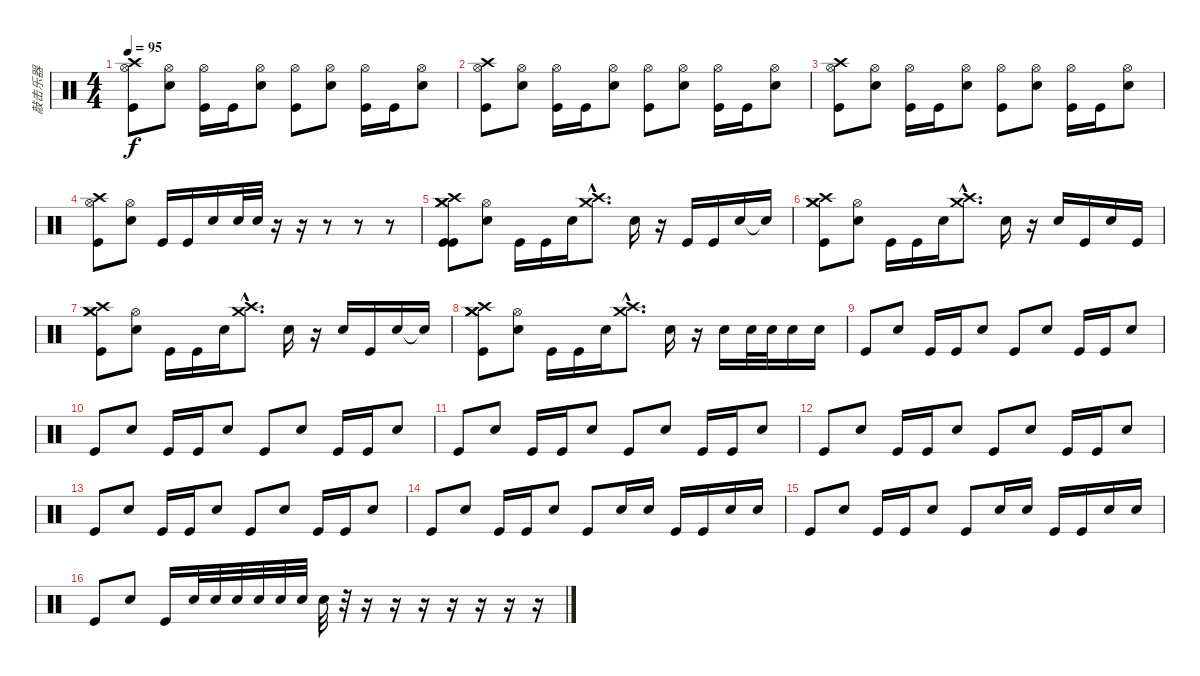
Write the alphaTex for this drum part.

\track ("敲击乐器" "敲击乐器") {instrument percussion}
\staff {score}
\articulation defaults
\ts (4 4)
\tempo 95
\clef neutral
\ks c
("Crash high (hit)" "Hi-Hat (open)" "Kick (hit)").8{dy f} ("Hi-Hat (open)" "Electric Snare (hit)").8 ("Hi-Hat (open)" "Kick (hit)").16 "Kick (hit)".16 ("Hi-Hat (open)" "Electric Snare (hit)").8 ("Hi-Hat (open)" "Kick (hit)").8 ("Hi-Hat (open)" "Electric Snare (hit)").8 ("Hi-Hat (open)" "Kick (hit)").16 "Kick (hit)".16 ("Hi-Hat (open)" "Electric Snare (hit)").8 |
("Crash high (hit)" "Hi-Hat (open)" "Kick (hit)").8 ("Hi-Hat (open)" "Electric Snare (hit)").8 ("Hi-Hat (open)" "Kick (hit)").16 "Kick (hit)".16 ("Hi-Hat (open)" "Electric Snare (hit)").8 ("Hi-Hat (open)" "Kick (hit)").8 ("Hi-Hat (open)" "Electric Snare (hit)").8 ("Hi-Hat (open)" "Kick (hit)").16 "Kick (hit)".16 ("Hi-Hat (open)" "Electric Snare (hit)").8 |
("Crash high (hit)" "Hi-Hat (open)" "Kick (hit)").8 ("Hi-Hat (open)" "Electric Snare (hit)").8 ("Hi-Hat (open)" "Kick (hit)").16 "Kick (hit)".16 ("Hi-Hat (open)" "Electric Snare (hit)").8 ("Hi-Hat (open)" "Kick (hit)").8 ("Hi-Hat (open)" "Electric Snare (hit)").8 ("Hi-Hat (open)" "Kick (hit)").16 "Kick (hit)".16 ("Hi-Hat (open)" "Electric Snare (hit)").8 |
("Crash high (hit)" "Hi-Hat (open)" "Kick (hit)").8 ("Hi-Hat (open)" "Electric Snare (hit)").8 "Kick (hit)".16 "Kick (hit)".16 "Electric Snare (hit)".16 "Electric Snare (hit)".32 "Electric Snare (hit)".32 r.16 r.16 r.8 r.8 r.8 |
("Crash medium (hit)" "Crash medium (hit)" "Crash high (hit)" "Kick (hit)" "Kick (hit)").8 ("Hi-Hat (open)" "Electric Snare (hit)").8 "Kick (hit)".16 "Kick (hit)".16 "Electric Snare (hit)".16 ("Crash medium (hit)"{hac} "Crash high (hit)"{hac}).8{d} "Electric Snare (hit)".16 r.16 "Kick (hit)".16 "Kick (hit)".16 "Electric Snare (hit)".16 "Snare (hit)"{t}.16 |
("Crash medium (hit)" "Crash medium (hit)" "Crash high (hit)" "Kick (hit)").8 ("Hi-Hat (open)" "Electric Snare (hit)").8 "Kick (hit)".16 "Kick (hit)".16 "Electric Snare (hit)".16 ("Crash medium (hit)"{hac} "Crash high (hit)"{hac}).8{d} "Electric Snare (hit)".16 r.16 "Electric Snare (hit)".16 "Kick (hit)".16 "Electric Snare (hit)".16 "Kick (hit)".16 |
("Crash medium (hit)" "Crash medium (hit)" "Crash high (hit)" "Kick (hit)").8 ("Hi-Hat (open)" "Electric Snare (hit)").8 "Kick (hit)".16 "Kick (hit)".16 "Electric Snare (hit)".16 ("Crash medium (hit)"{hac} "Crash high (hit)"{hac}).8{d} "Electric Snare (hit)".16 r.16 "Electric Snare (hit)".16 "Kick (hit)".16 "Electric Snare (hit)".16 "Snare (hit)"{t}.16 |
("Crash medium (hit)" "Crash medium (hit)" "Crash high (hit)" "Kick (hit)").8 ("Hi-Hat (open)" "Electric Snare (hit)").8 "Kick (hit)".16 "Kick (hit)".16 "Electric Snare (hit)".16 ("Crash medium (hit)"{hac} "Crash high (hit)"{hac}).8{d} "Electric Snare (hit)".16 r.16 "Electric Snare (hit)".16 "Electric Snare (hit)".32 "Electric Snare (hit)".32 "Electric Snare (hit)".16 "Electric Snare (hit)".16 |
"Kick (hit)".8 "Electric Snare (hit)".8 "Kick (hit)".16 "Kick (hit)".16 "Electric Snare (hit)".8 "Kick (hit)".8 "Electric Snare (hit)".8 "Kick (hit)".16 "Kick (hit)".16 "Electric Snare (hit)".8 |
"Kick (hit)".8 "Electric Snare (hit)".8 "Kick (hit)".16 "Kick (hit)".16 "Electric Snare (hit)".8 "Kick (hit)".8 "Electric Snare (hit)".8 "Kick (hit)".16 "Kick (hit)".16 "Electric Snare (hit)".8 |
"Kick (hit)".8 "Electric Snare (hit)".8 "Kick (hit)".16 "Kick (hit)".16 "Electric Snare (hit)".8 "Kick (hit)".8 "Electric Snare (hit)".8 "Kick (hit)".16 "Kick (hit)".16 "Electric Snare (hit)".8 |
"Kick (hit)".8 "Electric Snare (hit)".8 "Kick (hit)".16 "Kick (hit)".16 "Electric Snare (hit)".8 "Kick (hit)".8 "Electric Snare (hit)".8 "Kick (hit)".16 "Kick (hit)".16 "Electric Snare (hit)".8 |
"Kick (hit)".8 "Electric Snare (hit)".8 "Kick (hit)".16 "Kick (hit)".16 "Electric Snare (hit)".8 "Kick (hit)".8 "Electric Snare (hit)".8 "Kick (hit)".16 "Kick (hit)".16 "Electric Snare (hit)".8 |
"Kick (hit)".8 "Electric Snare (hit)".8 "Kick (hit)".16 "Kick (hit)".16 "Electric Snare (hit)".8 "Kick (hit)".8 "Electric Snare (hit)".16 "Electric Snare (hit)".16 "Kick (hit)".16 "Kick (hit)".16 "Electric Snare (hit)".16 "Electric Snare (hit)".16 |
"Kick (hit)".8 "Electric Snare (hit)".8 "Kick (hit)".16 "Kick (hit)".16 "Electric Snare (hit)".8 "Kick (hit)".8 "Electric Snare (hit)".16 "Electric Snare (hit)".16 "Kick (hit)".16 "Kick (hit)".16 "Electric Snare (hit)".16 "Electric Snare (hit)".16 |
"Kick (hit)".8 "Electric Snare (hit)".8 "Kick (hit)".16 "Electric Snare (hit)".32 "Electric Snare (hit)".32 "Electric Snare (hit)".32 "Electric Snare (hit)".32 "Electric Snare (hit)".32 "Electric Snare (hit)".32 "Electric Snare (hit)".32 r.32 r.16 r.16 r.16 r.16 r.16 r.16 r.16
